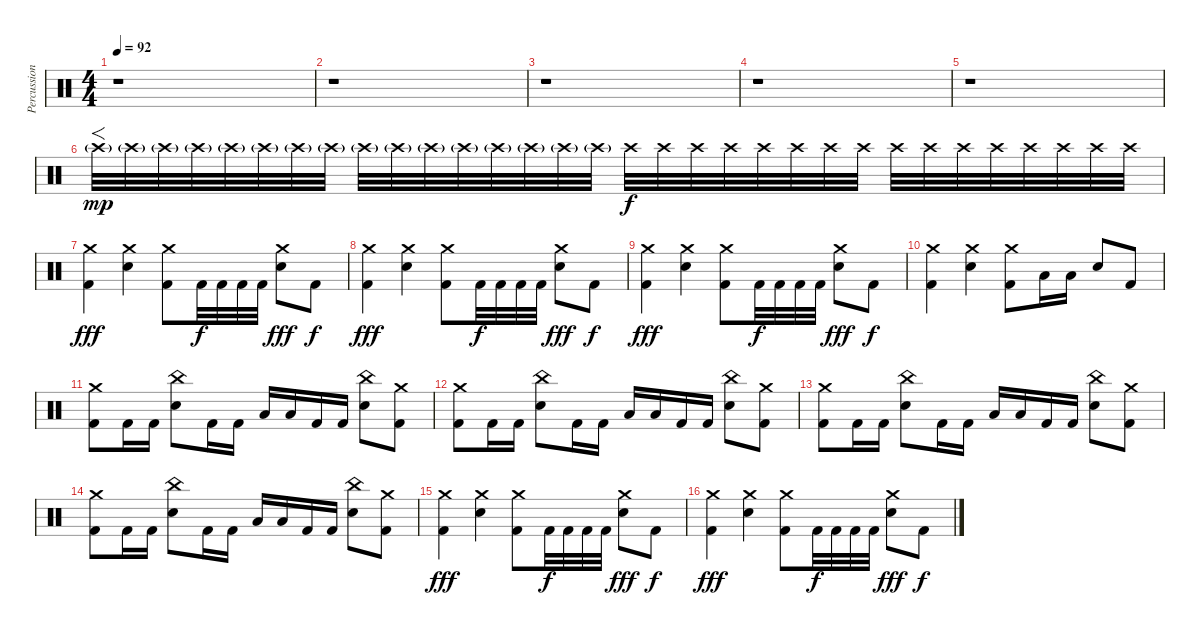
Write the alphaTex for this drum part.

\track ("Percussion" "Percussion") {instrument percussion}
\staff {score}
\articulation defaults
\ts (4 4)
\tempo 92
\clef neutral
\ks c
r.1{dy f} |
r.1 |
r.1 |
r.1 |
r.1 |
"Crash high (hit)"{g}.32{f dy mp} "Crash high (hit)"{g}.32 "Crash high (hit)"{g}.32 "Crash high (hit)"{g}.32 "Crash high (hit)"{g}.32 "Crash high (hit)"{g}.32 "Crash high (hit)"{g}.32 "Crash high (hit)"{g}.32 "Crash high (hit)"{g}.32 "Crash high (hit)"{g}.32 "Crash high (hit)"{g}.32 "Crash high (hit)"{g}.32 "Crash high (hit)"{g}.32 "Crash high (hit)"{g}.32 "Crash high (hit)"{g}.32 "Crash high (hit)"{g}.32 "Crash high (hit)".32{dy f} "Crash high (hit)".32 "Crash high (hit)".32 "Crash high (hit)".32 "Crash high (hit)".32 "Crash high (hit)".32 "Crash high (hit)".32 "Crash high (hit)".32 "Crash high (hit)".32 "Crash high (hit)".32 "Crash high (hit)".32 "Crash high (hit)".32 "Crash high (hit)".32 "Crash high (hit)".32 "Crash high (hit)".32 "Crash high (hit)".32 |
("Crash medium (hit)" "Kick (hit) 2").4{dy fff} ("Crash medium (hit)" "Electric Snare (hit)").4 ("Crash medium (hit)" "Kick (hit) 2").8 "Kick (hit) 2".32{dy f} "Kick (hit) 2".32 "Kick (hit) 2".32 "Kick (hit) 2".32 ("Crash medium (hit)" "Electric Snare (hit)").8{dy fff} "Kick (hit) 2".8{dy f} |
("Crash medium (hit)" "Kick (hit) 2").4{dy fff} ("Crash medium (hit)" "Electric Snare (hit)").4 ("Crash medium (hit)" "Kick (hit) 2").8 "Kick (hit) 2".32{dy f} "Kick (hit) 2".32 "Kick (hit) 2".32 "Kick (hit) 2".32 ("Crash medium (hit)" "Electric Snare (hit)").8{dy fff} "Kick (hit) 2".8{dy f} |
("Crash medium (hit)" "Kick (hit) 2").4{dy fff} ("Crash medium (hit)" "Electric Snare (hit)").4 ("Crash medium (hit)" "Kick (hit) 2").8 "Kick (hit) 2".32{dy f} "Kick (hit) 2".32 "Kick (hit) 2".32 "Kick (hit) 2".32 ("Crash medium (hit)" "Electric Snare (hit)").8{dy fff} "Kick (hit) 2".8{dy f} |
("Crash medium (hit)" "Kick (hit) 2").4 ("Crash medium (hit)" "Electric Snare (hit)").4 ("Crash medium (hit)" "Kick (hit) 2").8 "Low Floor Tom (hit)".16 "Low Floor Tom (hit)".16 "Electric Snare (hit)".8 "Kick (hit) 2".8 |
("Crash medium (hit)" "Kick (hit) 2").8 "Kick (hit) 2".16 "Kick (hit) 2".16 ("China (hit)" "Electric Snare (hit)").8 "Kick (hit) 2".16 "Kick (hit) 2".16 "Low Floor Tom (hit)".16 "Low Floor Tom (hit)".16 "Kick (hit) 2".16 "Kick (hit) 2".16 ("China (hit)" "Electric Snare (hit)").8 ("Crash medium (hit)" "Kick (hit) 2").8 |
("Crash medium (hit)" "Kick (hit) 2").8 "Kick (hit) 2".16 "Kick (hit) 2".16 ("China (hit)" "Electric Snare (hit)").8 "Kick (hit) 2".16 "Kick (hit) 2".16 "Low Floor Tom (hit)".16 "Low Floor Tom (hit)".16 "Kick (hit) 2".16 "Kick (hit) 2".16 ("China (hit)" "Electric Snare (hit)").8 ("Crash medium (hit)" "Kick (hit) 2").8 |
("Crash medium (hit)" "Kick (hit) 2").8 "Kick (hit) 2".16 "Kick (hit) 2".16 ("China (hit)" "Electric Snare (hit)").8 "Kick (hit) 2".16 "Kick (hit) 2".16 "Low Floor Tom (hit)".16 "Low Floor Tom (hit)".16 "Kick (hit) 2".16 "Kick (hit) 2".16 ("China (hit)" "Electric Snare (hit)").8 ("Crash medium (hit)" "Kick (hit) 2").8 |
("Crash medium (hit)" "Kick (hit) 2").8 "Kick (hit) 2".16 "Kick (hit) 2".16 ("China (hit)" "Electric Snare (hit)").8 "Kick (hit) 2".16 "Kick (hit) 2".16 "Low Floor Tom (hit)".16 "Low Floor Tom (hit)".16 "Kick (hit) 2".16 "Kick (hit) 2".16 ("China (hit)" "Electric Snare (hit)").8 ("Crash medium (hit)" "Kick (hit) 2").8 |
("Crash medium (hit)" "Kick (hit) 2").4{dy fff} ("Crash medium (hit)" "Electric Snare (hit)").4 ("Crash medium (hit)" "Kick (hit) 2").8 "Kick (hit) 2".32{dy f} "Kick (hit) 2".32 "Kick (hit) 2".32 "Kick (hit) 2".32 ("Crash medium (hit)" "Electric Snare (hit)").8{dy fff} "Kick (hit) 2".8{dy f} |
("Crash medium (hit)" "Kick (hit) 2").4{dy fff} ("Crash medium (hit)" "Electric Snare (hit)").4 ("Crash medium (hit)" "Kick (hit) 2").8 "Kick (hit) 2".32{dy f} "Kick (hit) 2".32 "Kick (hit) 2".32 "Kick (hit) 2".32 ("Crash medium (hit)" "Electric Snare (hit)").8{dy fff} "Kick (hit) 2".8{dy f}
